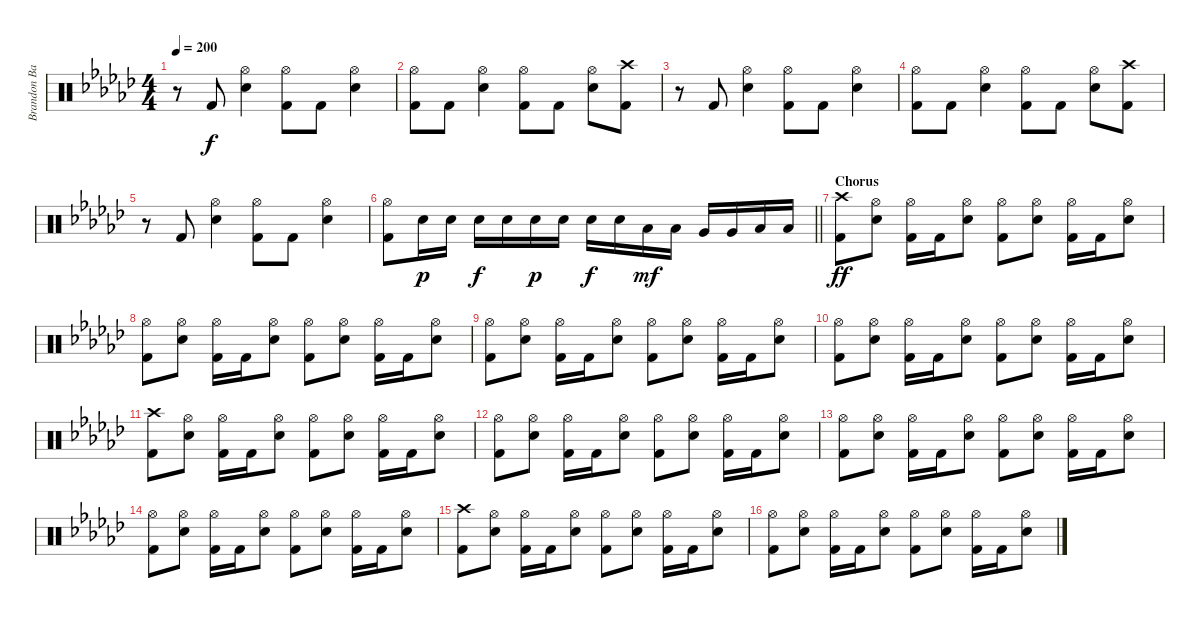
\track ("Brandon Barnes - Drums" "Brandon Ba") {instrument percussion}
\staff {score}
\articulation defaults
\ts (4 4)
\tempo 200
\clef neutral
\ks ebminor
r.8{dy f} "Kick (hit) 2".8 ("Hi-Hat (open)" "Electric Snare (hit)").4 ("Hi-Hat (open)" "Kick (hit) 2").8 "Kick (hit) 2".8 ("Hi-Hat (open)" "Electric Snare (hit)").4 |
("Hi-Hat (open)" "Kick (hit) 2").8 "Kick (hit) 2".8 ("Hi-Hat (open)" "Electric Snare (hit)").4 ("Hi-Hat (open)" "Kick (hit) 2").8 "Kick (hit) 2".8 ("Hi-Hat (open)" "Electric Snare (hit)").8 ("Crash high (hit)" "Kick (hit) 2").8 |
r.8 "Kick (hit) 2".8 ("Hi-Hat (open)" "Electric Snare (hit)").4 ("Hi-Hat (open)" "Kick (hit) 2").8 "Kick (hit) 2".8 ("Hi-Hat (open)" "Electric Snare (hit)").4 |
("Hi-Hat (open)" "Kick (hit) 2").8 "Kick (hit) 2".8 ("Hi-Hat (open)" "Electric Snare (hit)").4 ("Hi-Hat (open)" "Kick (hit) 2").8 "Kick (hit) 2".8 ("Hi-Hat (open)" "Electric Snare (hit)").8 ("Crash high (hit)" "Kick (hit) 2").8 |
r.8 "Kick (hit) 2".8 ("Hi-Hat (open)" "Electric Snare (hit)").4 ("Hi-Hat (open)" "Kick (hit) 2").8 "Kick (hit) 2".8 ("Hi-Hat (open)" "Electric Snare (hit)").4 |
\barLineRight lightlight
("Hi-Hat (open)" "Kick (hit) 2").8 "Snare (hit) 2".16{dy p} "Snare (hit) 2".16 "Snare (hit) 2".16{dy f} "Snare (hit) 2".16 "Snare (hit) 2".16{dy p} "Snare (hit) 2".16 "Snare (hit) 2".16{dy f} "Snare (hit) 2".16 "Low Tom (hit)".16{dy mf} "Low Tom (hit)".16 "Very Low Tom (hit)".16 "Very Low Tom (hit)".16 "Low Floor Tom (hit)".16 "Low Floor Tom (hit)".16 |
\section ("" "Chorus")
("Crash high (hit)" "Kick (hit) 2").8{dy ff} ("Snare (hit) 2" "Hi-Hat (open)").8 ("Kick (hit) 2" "Hi-Hat (open)").16 "Kick (hit) 2".16 ("Snare (hit) 2" "Hi-Hat (open)").8 ("Kick (hit) 2" "Hi-Hat (open)").8 ("Snare (hit) 2" "Hi-Hat (open)").8 ("Kick (hit) 2" "Hi-Hat (open)").16 "Kick (hit) 2".16 ("Snare (hit) 2" "Hi-Hat (open)").8 |
("Kick (hit) 2" "Hi-Hat (open)").8 ("Snare (hit) 2" "Hi-Hat (open)").8 ("Kick (hit) 2" "Hi-Hat (open)").16 "Kick (hit) 2".16 ("Snare (hit) 2" "Hi-Hat (open)").8 ("Kick (hit) 2" "Hi-Hat (open)").8 ("Snare (hit) 2" "Hi-Hat (open)").8 ("Kick (hit) 2" "Hi-Hat (open)").16 "Kick (hit) 2".16 ("Snare (hit) 2" "Hi-Hat (open)").8 |
("Kick (hit) 2" "Hi-Hat (open)").8 ("Snare (hit) 2" "Hi-Hat (open)").8 ("Kick (hit) 2" "Hi-Hat (open)").16 "Kick (hit) 2".16 ("Snare (hit) 2" "Hi-Hat (open)").8 ("Kick (hit) 2" "Hi-Hat (open)").8 ("Snare (hit) 2" "Hi-Hat (open)").8 ("Kick (hit) 2" "Hi-Hat (open)").16 "Kick (hit) 2".16 ("Snare (hit) 2" "Hi-Hat (open)").8 |
("Kick (hit) 2" "Hi-Hat (open)").8 ("Snare (hit) 2" "Hi-Hat (open)").8 ("Kick (hit) 2" "Hi-Hat (open)").16 "Kick (hit) 2".16 ("Snare (hit) 2" "Hi-Hat (open)").8 ("Kick (hit) 2" "Hi-Hat (open)").8 ("Snare (hit) 2" "Hi-Hat (open)").8 ("Kick (hit) 2" "Hi-Hat (open)").16 "Kick (hit) 2".16 ("Snare (hit) 2" "Hi-Hat (open)").8 |
("Crash high (hit)" "Kick (hit) 2").8 ("Snare (hit) 2" "Hi-Hat (open)").8 ("Kick (hit) 2" "Hi-Hat (open)").16 "Kick (hit) 2".16 ("Snare (hit) 2" "Hi-Hat (open)").8 ("Kick (hit) 2" "Hi-Hat (open)").8 ("Snare (hit) 2" "Hi-Hat (open)").8 ("Kick (hit) 2" "Hi-Hat (open)").16 "Kick (hit) 2".16 ("Snare (hit) 2" "Hi-Hat (open)").8 |
("Kick (hit) 2" "Hi-Hat (open)").8 ("Snare (hit) 2" "Hi-Hat (open)").8 ("Kick (hit) 2" "Hi-Hat (open)").16 "Kick (hit) 2".16 ("Snare (hit) 2" "Hi-Hat (open)").8 ("Kick (hit) 2" "Hi-Hat (open)").8 ("Snare (hit) 2" "Hi-Hat (open)").8 ("Kick (hit) 2" "Hi-Hat (open)").16 "Kick (hit) 2".16 ("Snare (hit) 2" "Hi-Hat (open)").8 |
("Kick (hit) 2" "Hi-Hat (open)").8 ("Snare (hit) 2" "Hi-Hat (open)").8 ("Kick (hit) 2" "Hi-Hat (open)").16 "Kick (hit) 2".16 ("Snare (hit) 2" "Hi-Hat (open)").8 ("Kick (hit) 2" "Hi-Hat (open)").8 ("Snare (hit) 2" "Hi-Hat (open)").8 ("Kick (hit) 2" "Hi-Hat (open)").16 "Kick (hit) 2".16 ("Snare (hit) 2" "Hi-Hat (open)").8 |
("Kick (hit) 2" "Hi-Hat (open)").8 ("Snare (hit) 2" "Hi-Hat (open)").8 ("Kick (hit) 2" "Hi-Hat (open)").16 "Kick (hit) 2".16 ("Snare (hit) 2" "Hi-Hat (open)").8 ("Kick (hit) 2" "Hi-Hat (open)").8 ("Snare (hit) 2" "Hi-Hat (open)").8 ("Kick (hit) 2" "Hi-Hat (open)").16 "Kick (hit) 2".16 ("Snare (hit) 2" "Hi-Hat (open)").8 |
("Kick (hit) 2" "Crash high (hit)").8 ("Snare (hit) 2" "Hi-Hat (open)").8 ("Kick (hit) 2" "Hi-Hat (open)").16 "Kick (hit) 2".16 ("Snare (hit) 2" "Hi-Hat (open)").8 ("Kick (hit) 2" "Hi-Hat (open)").8 ("Snare (hit) 2" "Hi-Hat (open)").8 ("Kick (hit) 2" "Hi-Hat (open)").16 "Kick (hit) 2".16 ("Snare (hit) 2" "Hi-Hat (open)").8 |
("Kick (hit) 2" "Hi-Hat (open)").8 ("Snare (hit) 2" "Hi-Hat (open)").8 ("Kick (hit) 2" "Hi-Hat (open)").16 "Kick (hit) 2".16 ("Snare (hit) 2" "Hi-Hat (open)").8 ("Kick (hit) 2" "Hi-Hat (open)").8 ("Snare (hit) 2" "Hi-Hat (open)").8 ("Kick (hit) 2" "Hi-Hat (open)").16 "Kick (hit) 2".16 ("Snare (hit) 2" "Hi-Hat (open)").8
